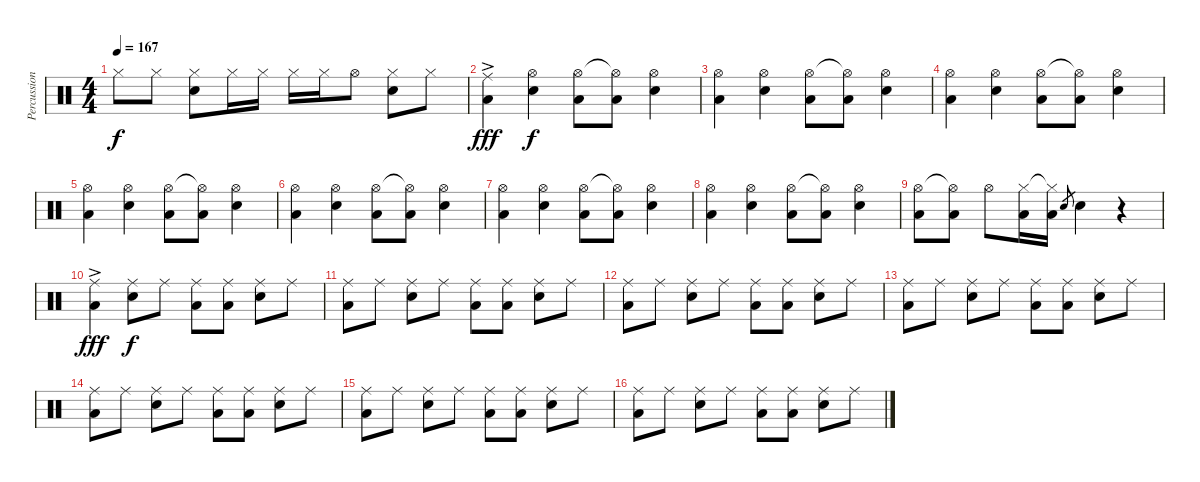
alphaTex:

\track ("Percussion" "Percussion") {instrument percussion}
\staff {score}
\articulation defaults
\ts (4 4)
\tempo 167
\clef neutral
\ks c "Hi-Hat (closed)".8{dy f} "Hi-Hat (closed)".8
("Hi-Hat (closed)" "Snare (hit) 2").8 "Hi-Hat (closed)".16 "Hi-Hat (closed)".16 "Hi-Hat (closed)".16 "Hi-Hat (closed)".16 "Hi-Hat (open)".8 ("Hi-Hat (closed)" "Snare (hit) 2").8 "Hi-Hat (closed)".8 |
("Ride (middle)"{ac} "Low Floor Tom (hit)").4{dy fff} ("Hi-Hat (open)" "Snare (hit) 2").4{dy f} ("Hi-Hat (open)" "Low Floor Tom (hit)").8 ("Hi-Hat (open)"{t} "Low Floor Tom (hit)").8 ("Hi-Hat (open)" "Snare (hit) 2").4 |
("Hi-Hat (open)" "Low Floor Tom (hit)").4 ("Hi-Hat (open)" "Snare (hit) 2").4 ("Hi-Hat (open)" "Low Floor Tom (hit)").8 ("Hi-Hat (open)"{t} "Low Floor Tom (hit)").8 ("Hi-Hat (open)" "Snare (hit) 2").4 |
("Hi-Hat (open)" "Low Floor Tom (hit)").4 ("Hi-Hat (open)" "Snare (hit) 2").4 ("Hi-Hat (open)" "Low Floor Tom (hit)").8 ("Hi-Hat (open)"{t} "Low Floor Tom (hit)").8 ("Hi-Hat (open)" "Snare (hit) 2").4 |
("Hi-Hat (open)" "Low Floor Tom (hit)").4 ("Hi-Hat (open)" "Snare (hit) 2").4 ("Hi-Hat (open)" "Low Floor Tom (hit)").8 ("Hi-Hat (open)"{t} "Low Floor Tom (hit)").8 ("Hi-Hat (open)" "Snare (hit) 2").4 |
("Hi-Hat (open)" "Low Floor Tom (hit)").4 ("Hi-Hat (open)" "Snare (hit) 2").4 ("Hi-Hat (open)" "Low Floor Tom (hit)").8 ("Hi-Hat (open)"{t} "Low Floor Tom (hit)").8 ("Hi-Hat (open)" "Snare (hit) 2").4 |
("Hi-Hat (open)" "Low Floor Tom (hit)").4 ("Hi-Hat (open)" "Snare (hit) 2").4 ("Hi-Hat (open)" "Low Floor Tom (hit)").8 ("Hi-Hat (open)"{t} "Low Floor Tom (hit)").8 ("Hi-Hat (open)" "Snare (hit) 2").4 |
("Hi-Hat (open)" "Low Floor Tom (hit)").4 ("Hi-Hat (open)" "Snare (hit) 2").4 ("Hi-Hat (open)" "Low Floor Tom (hit)").8 ("Hi-Hat (open)"{t} "Low Floor Tom (hit)").8 ("Hi-Hat (open)" "Snare (hit) 2").4 |
("Hi-Hat (open)" "Low Floor Tom (hit)").8 ("Hi-Hat (open)"{t} "Low Floor Tom (hit)").8 "Hi-Hat (open)".8 ("Hi-Hat (closed)" "Low Floor Tom (hit)").16 ("Hi-Hat (closed)"{t} "Low Floor Tom (hit)").16 "Snare (hit) 2".8{gr} "Snare (hit) 2".4 r.4 |
("Ride (middle)"{ac} "Low Floor Tom (hit)").4{dy fff} ("Ride (middle)" "Snare (hit) 2").8{dy f} "Ride (middle)".8 ("Ride (middle)" "Low Floor Tom (hit)").8 ("Ride (middle)" "Low Floor Tom (hit)").8 ("Ride (middle)" "Snare (hit) 2").8 "Ride (middle)".8 |
("Ride (middle)" "Low Floor Tom (hit)").8 "Ride (middle)".8 ("Ride (middle)" "Snare (hit) 2").8 "Ride (middle)".8 ("Ride (middle)" "Low Floor Tom (hit)").8 ("Ride (middle)" "Low Floor Tom (hit)").8 ("Ride (middle)" "Snare (hit) 2").8 "Ride (middle)".8 |
("Ride (middle)" "Low Floor Tom (hit)").8 "Ride (middle)".8 ("Ride (middle)" "Snare (hit) 2").8 "Ride (middle)".8 ("Ride (middle)" "Low Floor Tom (hit)").8 ("Ride (middle)" "Low Floor Tom (hit)").8 ("Ride (middle)" "Snare (hit) 2").8 "Ride (middle)".8 |
("Ride (middle)" "Low Floor Tom (hit)").8 "Ride (middle)".8 ("Ride (middle)" "Snare (hit) 2").8 "Ride (middle)".8 ("Ride (middle)" "Low Floor Tom (hit)").8 ("Ride (middle)" "Low Floor Tom (hit)").8 ("Ride (middle)" "Snare (hit) 2").8 "Ride (middle)".8 |
("Ride (middle)" "Low Floor Tom (hit)").8 "Ride (middle)".8 ("Ride (middle)" "Snare (hit) 2").8 "Ride (middle)".8 ("Ride (middle)" "Low Floor Tom (hit)").8 ("Ride (middle)" "Low Floor Tom (hit)").8 ("Ride (middle)" "Snare (hit) 2").8 "Ride (middle)".8 |
("Ride (middle)" "Low Floor Tom (hit)").8 "Ride (middle)".8 ("Ride (middle)" "Snare (hit) 2").8 "Ride (middle)".8 ("Ride (middle)" "Low Floor Tom (hit)").8 ("Ride (middle)" "Low Floor Tom (hit)").8 ("Ride (middle)" "Snare (hit) 2").8 "Ride (middle)".8 |
("Ride (middle)" "Low Floor Tom (hit)").8 "Ride (middle)".8 ("Ride (middle)" "Snare (hit) 2").8 "Ride (middle)".8 ("Ride (middle)" "Low Floor Tom (hit)").8 ("Ride (middle)" "Low Floor Tom (hit)").8 ("Ride (middle)" "Snare (hit) 2").8 "Ride (middle)".8
